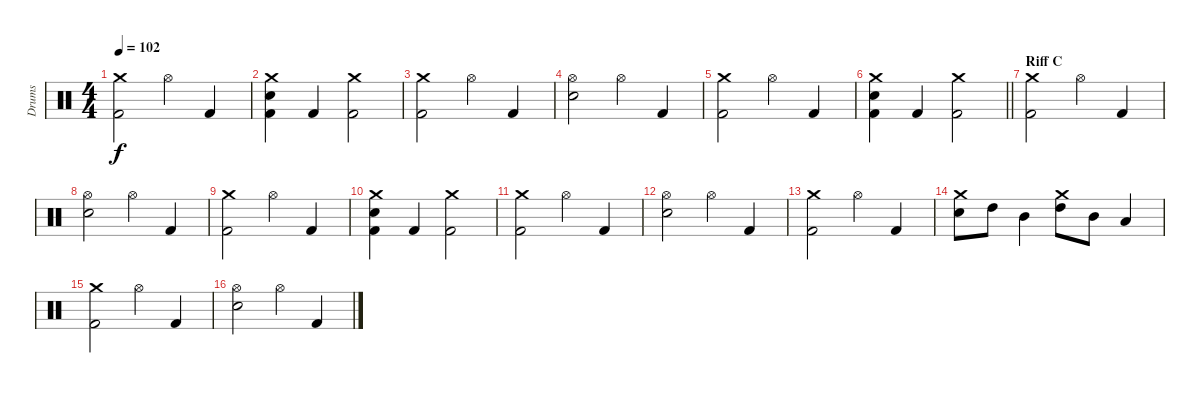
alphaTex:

\track ("Drums" "Drums") {instrument percussion}
\staff {score}
\articulation defaults
\ts (4 4)
\tempo 102
\clef neutral
\ks c
("Crash medium (hit)" "Kick (hit) 2").2{dy f} "Hi-Hat (open)".4 "Kick (hit) 2".4 |
("Crash medium (hit)" "Electric Snare (hit)" "Kick (hit) 2").4 "Kick (hit) 2".4 ("Crash medium (hit)" "Kick (hit) 2").2 |
("Crash medium (hit)" "Kick (hit) 2").2 "Hi-Hat (open)".4 "Kick (hit) 2".4 |
("Hi-Hat (open)" "Electric Snare (hit)").2 "Hi-Hat (open)".4 "Kick (hit) 2".4 |
("Crash medium (hit)" "Kick (hit) 2").2 "Hi-Hat (open)".4 "Kick (hit) 2".4 |
\barLineRight lightlight
("Crash medium (hit)" "Electric Snare (hit)" "Kick (hit) 2").4 "Kick (hit) 2".4 ("Crash medium (hit)" "Kick (hit) 2").2 |
\section ("" "Riff C")
("Crash medium (hit)" "Kick (hit) 2").2 "Hi-Hat (open)".4 "Kick (hit) 2".4 |
("Hi-Hat (open)" "Electric Snare (hit)").2 "Hi-Hat (open)".4 "Kick (hit) 2".4 |
("Crash medium (hit)" "Kick (hit) 2").2 "Hi-Hat (open)".4 "Kick (hit) 2".4 |
("Crash medium (hit)" "Electric Snare (hit)" "Kick (hit) 2").4 "Kick (hit) 2".4 ("Crash medium (hit)" "Kick (hit) 2").2 |
("Crash medium (hit)" "Kick (hit) 2").2 "Hi-Hat (open)".4 "Kick (hit) 2".4 |
("Hi-Hat (open)" "Electric Snare (hit)").2 "Hi-Hat (open)".4 "Kick (hit) 2".4 |
("Crash medium (hit)" "Kick (hit) 2").2 "Hi-Hat (open)".4 "Kick (hit) 2".4 |
("Crash medium (hit)" "Electric Snare (hit)").8 "High Tom (hit)".8 "Mid Tom (hit)".4 ("Crash medium (hit)" "High Tom (hit)").8 "Mid Tom (hit)".8 "Low Tom (hit)".4 |
("Crash medium (hit)" "Kick (hit) 2").2 "Hi-Hat (open)".4 "Kick (hit) 2".4 |
("Hi-Hat (open)" "Electric Snare (hit)").2 "Hi-Hat (open)".4 "Kick (hit) 2".4
